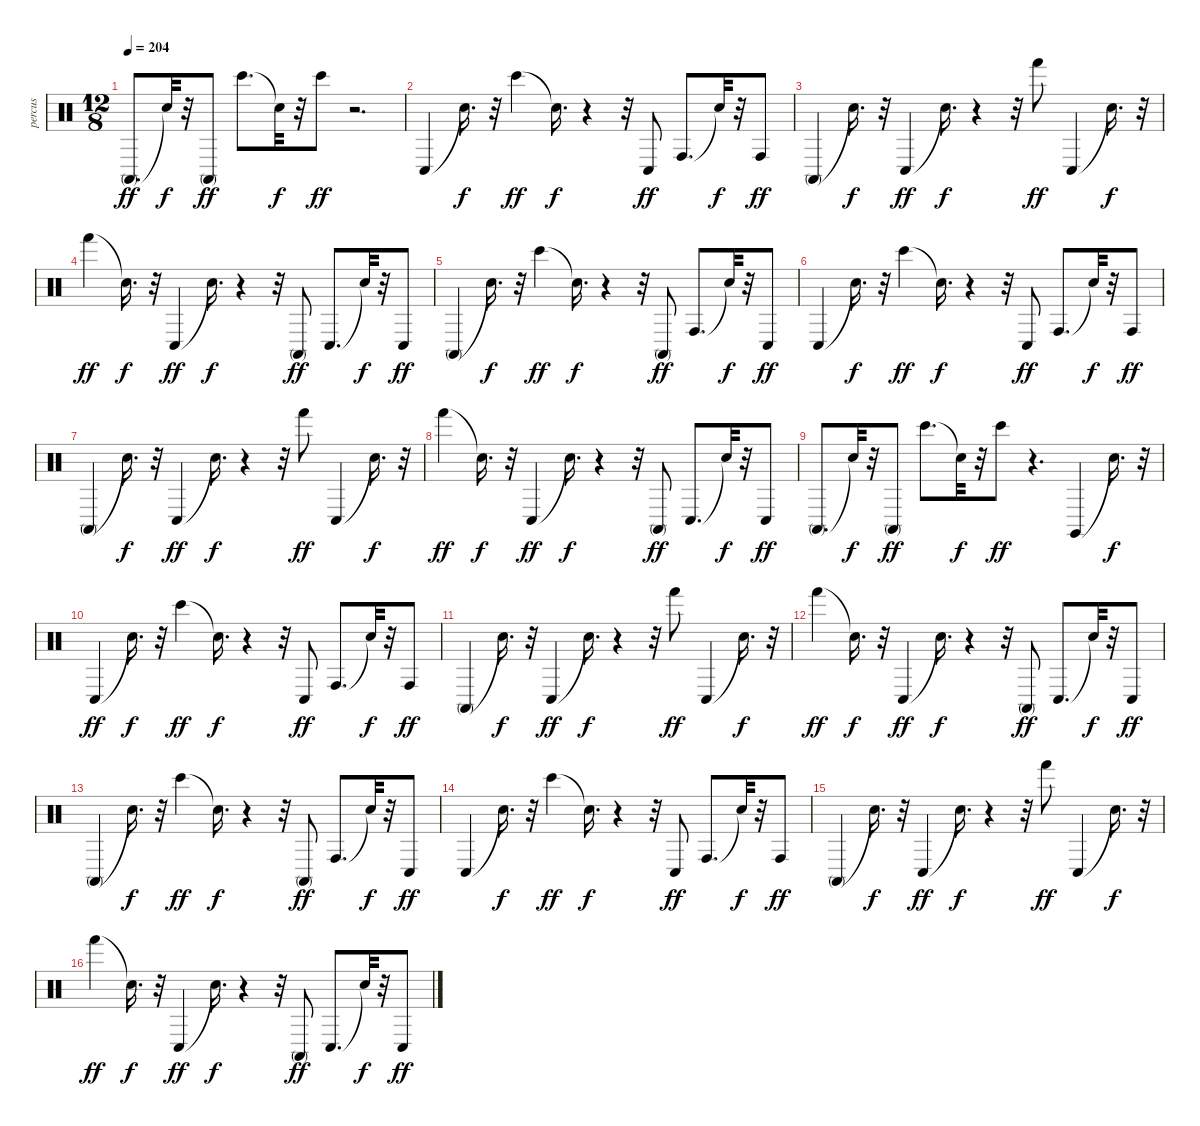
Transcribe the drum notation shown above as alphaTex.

\track ("percus" "percus") {instrument percussion}
\staff {score}
\articulation defaults
\ts (12 8)
\tempo 204
\clef neutral
\ks c "Conga high (mute)".8{d dy ff} "Snare (hit)"{t}.32{dy f}
r.32 "Conga high (mute)".8{dy ff} "Bongo High (hit)".8{d} "Snare (hit)"{t}.32{dy f} r.32 "Bongo High (hit)".8{dy ff} r.2{d} |
"Conga low (hit)".4 "Snare (hit)"{t}.16{d dy f} r.32 "Bongo High (hit)".4{dy ff} "Snare (hit)"{t}.16{d dy f} r.4 r.32 "Conga low (hit)".8{dy ff} "Conga high (hit)".8{d} "Snare (hit)"{t}.32{dy f} r.32 "Conga high (hit)".8{dy ff} |
"Conga high (mute)".4 "Snare (hit)"{t}.16{d dy f} r.32 "Conga low (hit)".4{dy ff} "Snare (hit)"{t}.16{d dy f} r.4 r.32 "Hand (hit)".8{dy ff} "Conga low (hit)".4 "Snare (hit)"{t}.16{d dy f} r.32 |
"Hand (hit)".4{dy ff} "Snare (hit)"{t}.16{d dy f} r.32 "Conga low (hit)".4{dy ff} "Snare (hit)"{t}.16{d dy f} r.4 r.32 "Conga high (mute)".8{dy ff} "Conga low (hit)".8{d} "Snare (hit)"{t}.32{dy f} r.32 "Conga low (hit)".8{dy ff} |
"Conga high (mute)".4 "Snare (hit)"{t}.16{d dy f} r.32 "Bongo High (hit)".4{dy ff} "Snare (hit)"{t}.16{d dy f} r.4 r.32 "Conga high (mute)".8{dy ff} "Conga high (hit)".8{d} "Snare (hit)"{t}.32{dy f} r.32 "Conga low (hit)".8{dy ff} |
"Conga low (hit)".4 "Snare (hit)"{t}.16{d dy f} r.32 "Bongo High (hit)".4{dy ff} "Snare (hit)"{t}.16{d dy f} r.4 r.32 "Conga low (hit)".8{dy ff} "Conga high (hit)".8{d} "Snare (hit)"{t}.32{dy f} r.32 "Conga high (hit)".8{dy ff} |
"Conga high (mute)".4 "Snare (hit)"{t}.16{d dy f} r.32 "Conga low (hit)".4{dy ff} "Snare (hit)"{t}.16{d dy f} r.4 r.32 "Hand (hit)".8{dy ff} "Conga low (hit)".4 "Snare (hit)"{t}.16{d dy f} r.32 |
"Hand (hit)".4{dy ff} "Snare (hit)"{t}.16{d dy f} r.32 "Conga low (hit)".4{dy ff} "Snare (hit)"{t}.16{d dy f} r.4 r.32 "Conga high (mute)".8{dy ff} "Conga low (hit)".8{d} "Snare (hit)"{t}.32{dy f} r.32 "Conga low (hit)".8{dy ff} |
"Conga high (mute)".8{d} "Snare (hit)"{t}.32{dy f} r.32 "Conga high (mute)".8{dy ff} "Bongo High (hit)".8{d} "Snare (hit)"{t}.32{dy f} r.32 "Bongo High (hit)".8{dy ff} r.4{d} "Claves (hit)".4 "Snare (hit)"{t}.16{d dy f} r.32 |
"Conga low (hit)".4{dy ff} "Snare (hit)"{t}.16{d dy f} r.32 "Bongo High (hit)".4{dy ff} "Snare (hit)"{t}.16{d dy f} r.4 r.32 "Conga low (hit)".8{dy ff} "Conga high (hit)".8{d} "Snare (hit)"{t}.32{dy f} r.32 "Conga high (hit)".8{dy ff} |
"Conga high (mute)".4 "Snare (hit)"{t}.16{d dy f} r.32 "Conga low (hit)".4{dy ff} "Snare (hit)"{t}.16{d dy f} r.4 r.32 "Hand (hit)".8{dy ff} "Conga low (hit)".4 "Snare (hit)"{t}.16{d dy f} r.32 |
"Hand (hit)".4{dy ff} "Snare (hit)"{t}.16{d dy f} r.32 "Conga low (hit)".4{dy ff} "Snare (hit)"{t}.16{d dy f} r.4 r.32 "Conga high (mute)".8{dy ff} "Conga low (hit)".8{d} "Snare (hit)"{t}.32{dy f} r.32 "Conga low (hit)".8{dy ff} |
"Conga high (mute)".4 "Snare (hit)"{t}.16{d dy f} r.32 "Bongo High (hit)".4{dy ff} "Snare (hit)"{t}.16{d dy f} r.4 r.32 "Conga high (mute)".8{dy ff} "Conga high (hit)".8{d} "Snare (hit)"{t}.32{dy f} r.32 "Conga low (hit)".8{dy ff} |
"Conga low (hit)".4 "Snare (hit)"{t}.16{d dy f} r.32 "Bongo High (hit)".4{dy ff} "Snare (hit)"{t}.16{d dy f} r.4 r.32 "Conga low (hit)".8{dy ff} "Conga high (hit)".8{d} "Snare (hit)"{t}.32{dy f} r.32 "Conga high (hit)".8{dy ff} |
"Conga high (mute)".4 "Snare (hit)"{t}.16{d dy f} r.32 "Conga low (hit)".4{dy ff} "Snare (hit)"{t}.16{d dy f} r.4 r.32 "Hand (hit)".8{dy ff} "Conga low (hit)".4 "Snare (hit)"{t}.16{d dy f} r.32 |
"Hand (hit)".4{dy ff} "Snare (hit)"{t}.16{d dy f} r.32 "Conga low (hit)".4{dy ff} "Snare (hit)"{t}.16{d dy f} r.4 r.32 "Conga high (mute)".8{dy ff} "Conga low (hit)".8{d} "Snare (hit)"{t}.32{dy f} r.32 "Conga low (hit)".8{dy ff}
